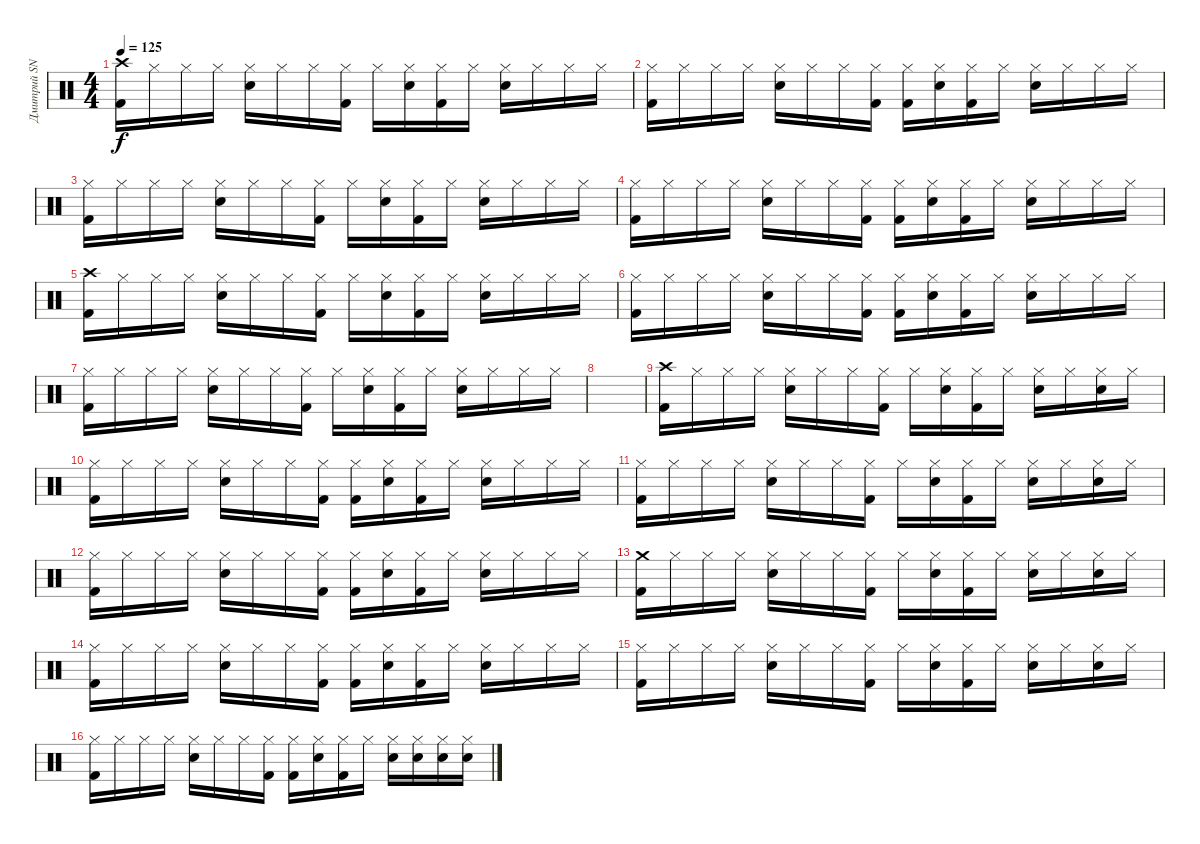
\track ("Дмитрий SNAKE Хакимов" "Дмитрий SN") {instrument percussion}
\staff {score}
\articulation defaults
\ts (4 4)
\tempo 125
\clef neutral
\ks c
("Crash high (hit)" "Kick (hit) 2").16{dy f} "Hi-Hat (closed)".16 "Hi-Hat (closed)".16 "Hi-Hat (closed)".16 ("Hi-Hat (closed)" "Snare (hit) 2").16 "Hi-Hat (closed)".16 "Hi-Hat (closed)".16 ("Hi-Hat (closed)" "Kick (hit) 2").16 "Hi-Hat (closed)".16 ("Hi-Hat (closed)" "Snare (hit) 2").16 ("Hi-Hat (closed)" "Kick (hit) 2").16 "Hi-Hat (closed)".16 ("Hi-Hat (closed)" "Snare (hit) 2").16 "Hi-Hat (closed)".16 "Hi-Hat (closed)".16 "Hi-Hat (closed)".16 |
("Hi-Hat (closed)" "Kick (hit) 2").16 "Hi-Hat (closed)".16 "Hi-Hat (closed)".16 "Hi-Hat (closed)".16 ("Hi-Hat (closed)" "Snare (hit) 2").16 "Hi-Hat (closed)".16 "Hi-Hat (closed)".16 ("Hi-Hat (closed)" "Kick (hit) 2").16 ("Hi-Hat (closed)" "Kick (hit) 2").16 ("Hi-Hat (closed)" "Snare (hit) 2").16 ("Hi-Hat (closed)" "Kick (hit) 2").16 "Hi-Hat (closed)".16 ("Hi-Hat (closed)" "Snare (hit) 2").16 "Hi-Hat (closed)".16 "Hi-Hat (closed)".16 "Hi-Hat (closed)".16 |
("Hi-Hat (closed)" "Kick (hit) 2").16 "Hi-Hat (closed)".16 "Hi-Hat (closed)".16 "Hi-Hat (closed)".16 ("Hi-Hat (closed)" "Snare (hit) 2").16 "Hi-Hat (closed)".16 "Hi-Hat (closed)".16 ("Hi-Hat (closed)" "Kick (hit) 2").16 "Hi-Hat (closed)".16 ("Hi-Hat (closed)" "Snare (hit) 2").16 ("Hi-Hat (closed)" "Kick (hit) 2").16 "Hi-Hat (closed)".16 ("Hi-Hat (closed)" "Snare (hit) 2").16 "Hi-Hat (closed)".16 "Hi-Hat (closed)".16 "Hi-Hat (closed)".16 |
("Hi-Hat (closed)" "Kick (hit) 2").16 "Hi-Hat (closed)".16 "Hi-Hat (closed)".16 "Hi-Hat (closed)".16 ("Hi-Hat (closed)" "Snare (hit) 2").16 "Hi-Hat (closed)".16 "Hi-Hat (closed)".16 ("Hi-Hat (closed)" "Kick (hit) 2").16 ("Hi-Hat (closed)" "Kick (hit) 2").16 ("Hi-Hat (closed)" "Snare (hit) 2").16 ("Hi-Hat (closed)" "Kick (hit) 2").16 "Hi-Hat (closed)".16 ("Hi-Hat (closed)" "Snare (hit) 2").16 "Hi-Hat (closed)".16 "Hi-Hat (closed)".16 "Hi-Hat (closed)".16 |
("Crash high (hit)" "Kick (hit) 2").16 "Hi-Hat (closed)".16 "Hi-Hat (closed)".16 "Hi-Hat (closed)".16 ("Hi-Hat (closed)" "Snare (hit) 2").16 "Hi-Hat (closed)".16 "Hi-Hat (closed)".16 ("Hi-Hat (closed)" "Kick (hit) 2").16 "Hi-Hat (closed)".16 ("Hi-Hat (closed)" "Snare (hit) 2").16 ("Hi-Hat (closed)" "Kick (hit) 2").16 "Hi-Hat (closed)".16 ("Hi-Hat (closed)" "Snare (hit) 2").16 "Hi-Hat (closed)".16 "Hi-Hat (closed)".16 "Hi-Hat (closed)".16 |
("Hi-Hat (closed)" "Kick (hit) 2").16 "Hi-Hat (closed)".16 "Hi-Hat (closed)".16 "Hi-Hat (closed)".16 ("Hi-Hat (closed)" "Snare (hit) 2").16 "Hi-Hat (closed)".16 "Hi-Hat (closed)".16 ("Hi-Hat (closed)" "Kick (hit) 2").16 ("Hi-Hat (closed)" "Kick (hit) 2").16 ("Hi-Hat (closed)" "Snare (hit) 2").16 ("Hi-Hat (closed)" "Kick (hit) 2").16 "Hi-Hat (closed)".16 ("Hi-Hat (closed)" "Snare (hit) 2").16 "Hi-Hat (closed)".16 "Hi-Hat (closed)".16 "Hi-Hat (closed)".16 |
("Hi-Hat (closed)" "Kick (hit) 2").16 "Hi-Hat (closed)".16 "Hi-Hat (closed)".16 "Hi-Hat (closed)".16 ("Hi-Hat (closed)" "Snare (hit) 2").16 "Hi-Hat (closed)".16 "Hi-Hat (closed)".16 ("Hi-Hat (closed)" "Kick (hit) 2").16 "Hi-Hat (closed)".16 ("Hi-Hat (closed)" "Snare (hit) 2").16 ("Hi-Hat (closed)" "Kick (hit) 2").16 "Hi-Hat (closed)".16 ("Hi-Hat (closed)" "Snare (hit) 2").16 "Hi-Hat (closed)".16 "Hi-Hat (closed)".16 "Hi-Hat (closed)".16 |
|
("Crash high (hit)" "Kick (hit) 2").16 "Hi-Hat (closed)".16 "Hi-Hat (closed)".16 "Hi-Hat (closed)".16 ("Hi-Hat (closed)" "Snare (hit) 2").16 "Hi-Hat (closed)".16 "Hi-Hat (closed)".16 ("Hi-Hat (closed)" "Kick (hit) 2").16 "Hi-Hat (closed)".16 ("Hi-Hat (closed)" "Snare (hit) 2").16 ("Hi-Hat (closed)" "Kick (hit) 2").16 "Hi-Hat (closed)".16 ("Hi-Hat (closed)" "Snare (hit) 2").16 "Hi-Hat (closed)".16 ("Hi-Hat (closed)" "Snare (hit) 2").16 "Hi-Hat (closed)".16 |
("Hi-Hat (closed)" "Kick (hit) 2").16 "Hi-Hat (closed)".16 "Hi-Hat (closed)".16 "Hi-Hat (closed)".16 ("Hi-Hat (closed)" "Snare (hit) 2").16 "Hi-Hat (closed)".16 "Hi-Hat (closed)".16 ("Hi-Hat (closed)" "Kick (hit) 2").16 ("Hi-Hat (closed)" "Kick (hit) 2").16 ("Hi-Hat (closed)" "Snare (hit) 2").16 ("Hi-Hat (closed)" "Kick (hit) 2").16 "Hi-Hat (closed)".16 ("Hi-Hat (closed)" "Snare (hit) 2").16 "Hi-Hat (closed)".16 "Hi-Hat (closed)".16 "Hi-Hat (closed)".16 |
("Hi-Hat (closed)" "Kick (hit) 2").16 "Hi-Hat (closed)".16 "Hi-Hat (closed)".16 "Hi-Hat (closed)".16 ("Hi-Hat (closed)" "Snare (hit) 2").16 "Hi-Hat (closed)".16 "Hi-Hat (closed)".16 ("Hi-Hat (closed)" "Kick (hit) 2").16 "Hi-Hat (closed)".16 ("Hi-Hat (closed)" "Snare (hit) 2").16 ("Hi-Hat (closed)" "Kick (hit) 2").16 "Hi-Hat (closed)".16 ("Hi-Hat (closed)" "Snare (hit) 2").16 "Hi-Hat (closed)".16 ("Hi-Hat (closed)" "Snare (hit) 2").16 "Hi-Hat (closed)".16 |
("Hi-Hat (closed)" "Kick (hit) 2").16 "Hi-Hat (closed)".16 "Hi-Hat (closed)".16 "Hi-Hat (closed)".16 ("Hi-Hat (closed)" "Snare (hit) 2").16 "Hi-Hat (closed)".16 "Hi-Hat (closed)".16 ("Hi-Hat (closed)" "Kick (hit) 2").16 ("Hi-Hat (closed)" "Kick (hit) 2").16 ("Hi-Hat (closed)" "Snare (hit) 2").16 ("Hi-Hat (closed)" "Kick (hit) 2").16 "Hi-Hat (closed)".16 ("Hi-Hat (closed)" "Snare (hit) 2").16 "Hi-Hat (closed)".16 "Hi-Hat (closed)".16 "Hi-Hat (closed)".16 |
("Crash medium (hit)" "Kick (hit) 2").16 "Hi-Hat (closed)".16 "Hi-Hat (closed)".16 "Hi-Hat (closed)".16 ("Hi-Hat (closed)" "Snare (hit) 2").16 "Hi-Hat (closed)".16 "Hi-Hat (closed)".16 ("Hi-Hat (closed)" "Kick (hit) 2").16 "Hi-Hat (closed)".16 ("Hi-Hat (closed)" "Snare (hit) 2").16 ("Hi-Hat (closed)" "Kick (hit) 2").16 "Hi-Hat (closed)".16 ("Hi-Hat (closed)" "Snare (hit) 2").16 "Hi-Hat (closed)".16 ("Hi-Hat (closed)" "Snare (hit) 2").16 "Hi-Hat (closed)".16 |
("Hi-Hat (closed)" "Kick (hit) 2").16 "Hi-Hat (closed)".16 "Hi-Hat (closed)".16 "Hi-Hat (closed)".16 ("Hi-Hat (closed)" "Snare (hit) 2").16 "Hi-Hat (closed)".16 "Hi-Hat (closed)".16 ("Hi-Hat (closed)" "Kick (hit) 2").16 ("Hi-Hat (closed)" "Kick (hit) 2").16 ("Hi-Hat (closed)" "Snare (hit) 2").16 ("Hi-Hat (closed)" "Kick (hit) 2").16 "Hi-Hat (closed)".16 ("Hi-Hat (closed)" "Snare (hit) 2").16 "Hi-Hat (closed)".16 "Hi-Hat (closed)".16 "Hi-Hat (closed)".16 |
("Hi-Hat (closed)" "Kick (hit) 2").16 "Hi-Hat (closed)".16 "Hi-Hat (closed)".16 "Hi-Hat (closed)".16 ("Hi-Hat (closed)" "Snare (hit) 2").16 "Hi-Hat (closed)".16 "Hi-Hat (closed)".16 ("Hi-Hat (closed)" "Kick (hit) 2").16 "Hi-Hat (closed)".16 ("Hi-Hat (closed)" "Snare (hit) 2").16 ("Hi-Hat (closed)" "Kick (hit) 2").16 "Hi-Hat (closed)".16 ("Hi-Hat (closed)" "Snare (hit) 2").16 "Hi-Hat (closed)".16 ("Hi-Hat (closed)" "Snare (hit) 2").16 "Hi-Hat (closed)".16 |
("Hi-Hat (closed)" "Kick (hit) 2").16 "Hi-Hat (closed)".16 "Hi-Hat (closed)".16 "Hi-Hat (closed)".16 ("Hi-Hat (closed)" "Snare (hit) 2").16 "Hi-Hat (closed)".16 "Hi-Hat (closed)".16 ("Hi-Hat (closed)" "Kick (hit) 2").16 ("Hi-Hat (closed)" "Kick (hit) 2").16 ("Hi-Hat (closed)" "Snare (hit) 2").16 ("Hi-Hat (closed)" "Kick (hit) 2").16 "Hi-Hat (closed)".16 ("Hi-Hat (closed)" "Snare (hit) 2").16 ("Hi-Hat (closed)" "Snare (hit) 2").16 ("Hi-Hat (closed)" "Snare (hit) 2").16 ("Hi-Hat (closed)" "Snare (hit) 2").16
